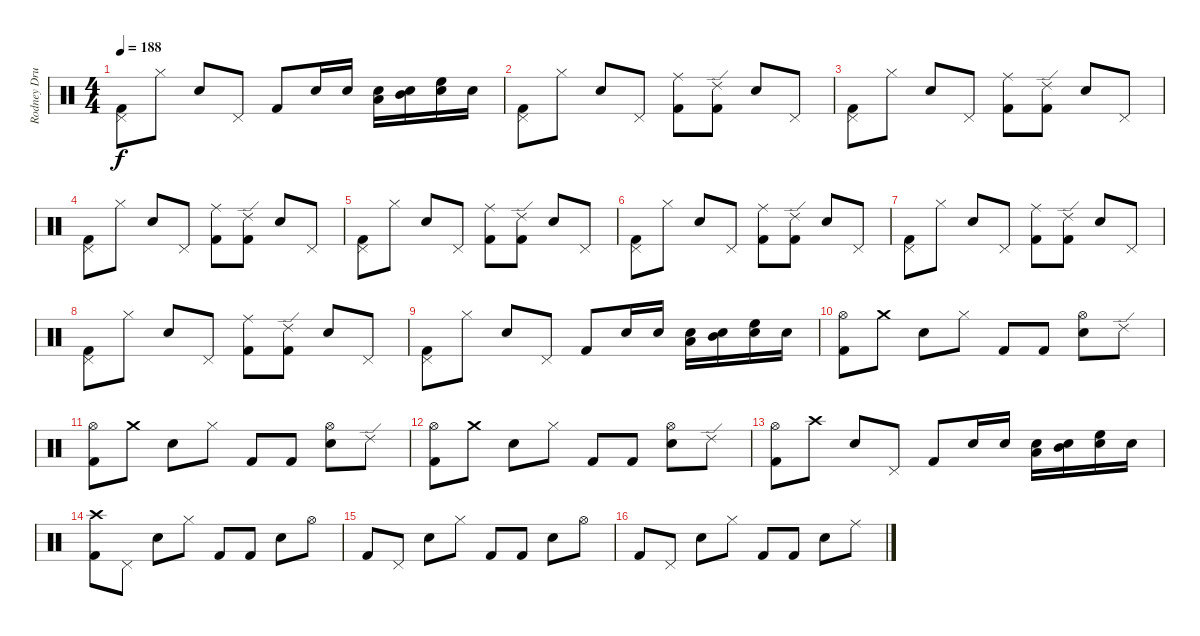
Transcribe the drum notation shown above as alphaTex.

\track ("Rodney Drums" "Rodney Dru") {instrument percussion}
\staff {score}
\articulation defaults
\ts (4 4)
\tempo 188
\clef neutral
\ks c
("Pedal Hi-Hat (hit)" "Kick (hit) 2").8{dy f} "Hi-Hat (closed)".8 "Electric Snare (hit)".8 "Pedal Hi-Hat (hit)".8 "Kick (hit) 2".8 "Electric Snare (hit)".16 "Electric Snare (hit)".16 ("Electric Snare (hit)" "Low Tom (hit)").16 ("Mid Tom (hit)" "Electric Snare (hit)").16 ("High Floor Tom (hit)" "Electric Snare (hit)").16 "Electric Snare (hit)".16 |
("Pedal Hi-Hat (hit)" "Kick (hit) 2").8 "Hi-Hat (closed)".8 "Electric Snare (hit)".8 "Pedal Hi-Hat (hit)".8 ("Ride (middle)" "Kick (hit) 2").8 ("Ride (edge) 2" "Kick (hit) 2").8 "Electric Snare (hit)".8 "Pedal Hi-Hat (hit)".8 |
("Pedal Hi-Hat (hit)" "Kick (hit) 2").8 "Hi-Hat (closed)".8 "Electric Snare (hit)".8 "Pedal Hi-Hat (hit)".8 ("Ride (middle)" "Kick (hit) 2").8 ("Ride (edge) 2" "Kick (hit) 2").8 "Electric Snare (hit)".8 "Pedal Hi-Hat (hit)".8 |
("Pedal Hi-Hat (hit)" "Kick (hit) 2").8 "Hi-Hat (closed)".8 "Electric Snare (hit)".8 "Pedal Hi-Hat (hit)".8 ("Ride (middle)" "Kick (hit) 2").8 ("Ride (edge) 2" "Kick (hit) 2").8 "Electric Snare (hit)".8 "Pedal Hi-Hat (hit)".8 |
("Pedal Hi-Hat (hit)" "Kick (hit) 2").8 "Hi-Hat (closed)".8 "Electric Snare (hit)".8 "Pedal Hi-Hat (hit)".8 ("Ride (middle)" "Kick (hit) 2").8 ("Ride (edge) 2" "Kick (hit) 2").8 "Electric Snare (hit)".8 "Pedal Hi-Hat (hit)".8 |
("Pedal Hi-Hat (hit)" "Kick (hit) 2").8 "Hi-Hat (closed)".8 "Electric Snare (hit)".8 "Pedal Hi-Hat (hit)".8 ("Ride (middle)" "Kick (hit) 2").8 ("Ride (edge) 2" "Kick (hit) 2").8 "Electric Snare (hit)".8 "Pedal Hi-Hat (hit)".8 |
("Pedal Hi-Hat (hit)" "Kick (hit) 2").8 "Hi-Hat (closed)".8 "Electric Snare (hit)".8 "Pedal Hi-Hat (hit)".8 ("Ride (middle)" "Kick (hit) 2").8 ("Ride (edge) 2" "Kick (hit) 2").8 "Electric Snare (hit)".8 "Pedal Hi-Hat (hit)".8 |
("Pedal Hi-Hat (hit)" "Kick (hit) 2").8 "Hi-Hat (closed)".8 "Electric Snare (hit)".8 "Pedal Hi-Hat (hit)".8 ("Ride (middle)" "Kick (hit) 2").8 ("Ride (edge) 2" "Kick (hit) 2").8 "Electric Snare (hit)".8 "Pedal Hi-Hat (hit)".8 |
("Pedal Hi-Hat (hit)" "Kick (hit) 2").8 "Hi-Hat (closed)".8 "Electric Snare (hit)".8 "Pedal Hi-Hat (hit)".8 "Kick (hit) 2".8 "Electric Snare (hit)".16 "Electric Snare (hit)".16 ("Electric Snare (hit)" "Low Tom (hit)").16 ("Mid Tom (hit)" "Electric Snare (hit)").16 ("High Floor Tom (hit)" "Electric Snare (hit)").16 "Electric Snare (hit)".16 |
("Hi-Hat (open)" "Kick (hit) 2").8 "Crash medium (hit)".8 "Electric Snare (hit)".8 "Hi-Hat (closed)".8 "Kick (hit) 2".8 "Kick (hit) 2".8 ("Hi-Hat (open)" "Electric Snare (hit)").8 "Ride (edge) 2".8 |
("Hi-Hat (open)" "Kick (hit) 2").8 "Crash medium (hit)".8 "Electric Snare (hit)".8 "Hi-Hat (closed)".8 "Kick (hit) 2".8 "Kick (hit) 2".8 ("Hi-Hat (open)" "Electric Snare (hit)").8 "Ride (edge) 2".8 |
("Hi-Hat (open)" "Kick (hit) 2").8 "Crash medium (hit)".8 "Electric Snare (hit)".8 "Hi-Hat (closed)".8 "Kick (hit) 2".8 "Kick (hit) 2".8 ("Hi-Hat (open)" "Electric Snare (hit)").8 "Ride (edge) 2".8 |
("Hi-Hat (open)" "Kick (hit) 2").8 "Crash high (hit)".8 "Electric Snare (hit)".8 "Pedal Hi-Hat (hit)".8 "Kick (hit) 2".8 "Electric Snare (hit)".16 "Electric Snare (hit)".16 ("Electric Snare (hit)" "Low Tom (hit)").16 ("Mid Tom (hit)" "Electric Snare (hit)").16 ("High Floor Tom (hit)" "Electric Snare (hit)").16 "Electric Snare (hit)".16 |
("Crash high (hit)" "Kick (hit) 2").8 "Pedal Hi-Hat (hit)".8 "Electric Snare (hit)".8 "Hi-Hat (closed)".8 "Kick (hit) 2".8 "Kick (hit) 2".8 "Electric Snare (hit)".8 "Hi-Hat (open)".8 |
"Kick (hit) 2".8 "Pedal Hi-Hat (hit)".8 "Electric Snare (hit)".8 "Hi-Hat (closed)".8 "Kick (hit) 2".8 "Kick (hit) 2".8 "Electric Snare (hit)".8 "Hi-Hat (open)".8 |
"Kick (hit) 2".8 "Pedal Hi-Hat (hit)".8 "Electric Snare (hit)".8 "Hi-Hat (closed)".8 "Kick (hit) 2".8 "Kick (hit) 2".8 "Electric Snare (hit)".8 "Ride (middle)".8
